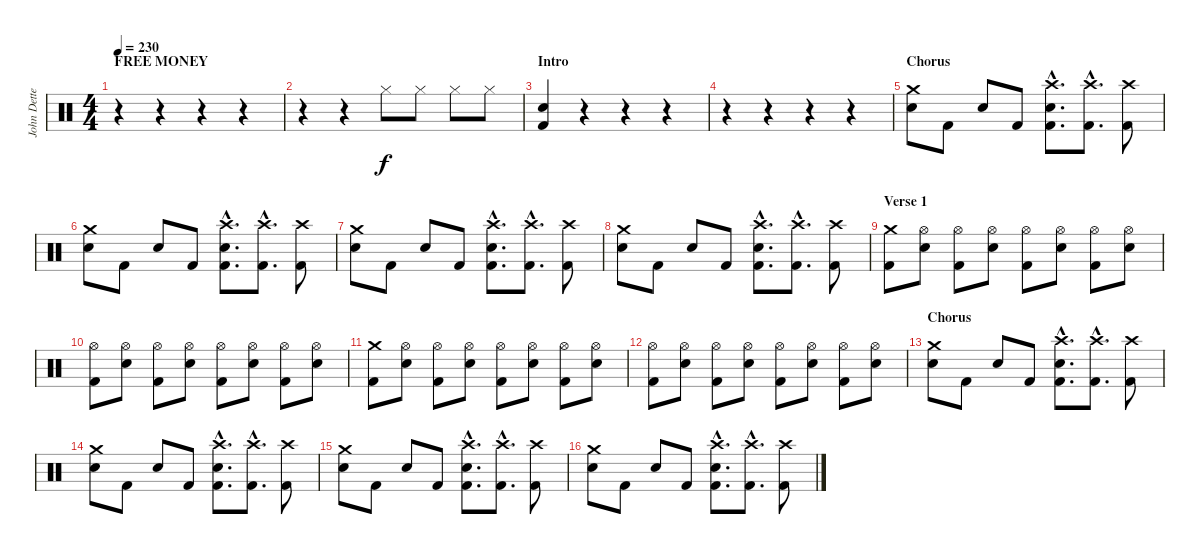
\track ("John Dette" "John Dette") {instrument percussion}
\staff {score}
\articulation defaults
\ts (4 4)
\section ("" "FREE MONEY")
\tempo 230
\clef neutral
\ks c
r.4{dy f} r.4 r.4 r.4 |
r.4 r.4 "Hi-Hat (closed)".8 "Hi-Hat (closed)".8 "Hi-Hat (closed)".8 "Hi-Hat (closed)".8 |
\section ("" "Intro")
("Snare (hit) 2" "Kick (hit) 2").4 r.4 r.4 r.4 |
r.4 r.4 r.4 r.4 |
\section ("" "Chorus")
("Crash medium (hit)" "Snare (hit) 2").8 "Kick (hit) 2".8 "Snare (hit) 2".8 "Kick (hit) 2".8 ("Crash high (hit)"{hac} "Snare (hit) 2"{hac} "Kick (hit) 2"{hac}).8{d} ("Crash high (hit)"{hac} "Kick (hit) 2"{hac}).8{d} ("Crash high (hit)" "Kick (hit) 2").8 |
("Crash medium (hit)" "Snare (hit) 2").8 "Kick (hit) 2".8 "Snare (hit) 2".8 "Kick (hit) 2".8 ("Crash high (hit)"{hac} "Snare (hit) 2"{hac} "Kick (hit) 2"{hac}).8{d} ("Crash high (hit)"{hac} "Kick (hit) 2"{hac}).8{d} ("Crash high (hit)" "Kick (hit) 2").8 |
("Crash medium (hit)" "Snare (hit) 2").8 "Kick (hit) 2".8 "Snare (hit) 2".8 "Kick (hit) 2".8 ("Crash high (hit)"{hac} "Snare (hit) 2"{hac} "Kick (hit) 2"{hac}).8{d} ("Crash high (hit)"{hac} "Kick (hit) 2"{hac}).8{d} ("Crash high (hit)" "Kick (hit) 2").8 |
("Crash medium (hit)" "Snare (hit) 2").8 "Kick (hit) 2".8 "Snare (hit) 2".8 "Kick (hit) 2".8 ("Crash high (hit)"{hac} "Snare (hit) 2"{hac} "Kick (hit) 2"{hac}).8{d} ("Crash high (hit)"{hac} "Kick (hit) 2"{hac}).8{d} ("Crash high (hit)" "Kick (hit) 2").8 |
\section ("" "Verse 1")
("Crash medium (hit)" "Kick (hit) 2").8 ("Hi-Hat (open)" "Snare (hit) 2").8 ("Hi-Hat (open)" "Kick (hit) 2").8 ("Hi-Hat (open)" "Snare (hit) 2").8 ("Hi-Hat (open)" "Kick (hit) 2").8 ("Hi-Hat (open)" "Snare (hit) 2").8 ("Hi-Hat (open)" "Kick (hit) 2").8 ("Hi-Hat (open)" "Snare (hit) 2").8 |
("Hi-Hat (open)" "Kick (hit) 2").8 ("Hi-Hat (open)" "Snare (hit) 2").8 ("Hi-Hat (open)" "Kick (hit) 2").8 ("Hi-Hat (open)" "Snare (hit) 2").8 ("Hi-Hat (open)" "Kick (hit) 2").8 ("Hi-Hat (open)" "Snare (hit) 2").8 ("Hi-Hat (open)" "Kick (hit) 2").8 ("Hi-Hat (open)" "Snare (hit) 2").8 |
("Crash medium (hit)" "Kick (hit) 2").8 ("Hi-Hat (open)" "Snare (hit) 2").8 ("Hi-Hat (open)" "Kick (hit) 2").8 ("Hi-Hat (open)" "Snare (hit) 2").8 ("Hi-Hat (open)" "Kick (hit) 2").8 ("Hi-Hat (open)" "Snare (hit) 2").8 ("Hi-Hat (open)" "Kick (hit) 2").8 ("Hi-Hat (open)" "Snare (hit) 2").8 |
("Hi-Hat (open)" "Kick (hit) 2").8 ("Hi-Hat (open)" "Snare (hit) 2").8 ("Hi-Hat (open)" "Kick (hit) 2").8 ("Hi-Hat (open)" "Snare (hit) 2").8 ("Hi-Hat (open)" "Kick (hit) 2").8 ("Hi-Hat (open)" "Snare (hit) 2").8 ("Hi-Hat (open)" "Kick (hit) 2").8 ("Hi-Hat (open)" "Snare (hit) 2").8 |
\section ("" "Chorus")
("Crash medium (hit)" "Snare (hit) 2").8 "Kick (hit) 2".8 "Snare (hit) 2".8 "Kick (hit) 2".8 ("Crash high (hit)"{hac} "Snare (hit) 2"{hac} "Kick (hit) 2"{hac}).8{d} ("Crash high (hit)"{hac} "Kick (hit) 2"{hac}).8{d} ("Crash high (hit)" "Kick (hit) 2").8 |
("Crash medium (hit)" "Snare (hit) 2").8 "Kick (hit) 2".8 "Snare (hit) 2".8 "Kick (hit) 2".8 ("Crash high (hit)"{hac} "Snare (hit) 2"{hac} "Kick (hit) 2"{hac}).8{d} ("Crash high (hit)"{hac} "Kick (hit) 2"{hac}).8{d} ("Crash high (hit)" "Kick (hit) 2").8 |
("Crash medium (hit)" "Snare (hit) 2").8 "Kick (hit) 2".8 "Snare (hit) 2".8 "Kick (hit) 2".8 ("Crash high (hit)"{hac} "Snare (hit) 2"{hac} "Kick (hit) 2"{hac}).8{d} ("Crash high (hit)"{hac} "Kick (hit) 2"{hac}).8{d} ("Crash high (hit)" "Kick (hit) 2").8 |
("Crash medium (hit)" "Snare (hit) 2").8 "Kick (hit) 2".8 "Snare (hit) 2".8 "Kick (hit) 2".8 ("Crash high (hit)"{hac} "Snare (hit) 2"{hac} "Kick (hit) 2"{hac}).8{d} ("Crash high (hit)"{hac} "Kick (hit) 2"{hac}).8{d} ("Crash high (hit)" "Kick (hit) 2").8
